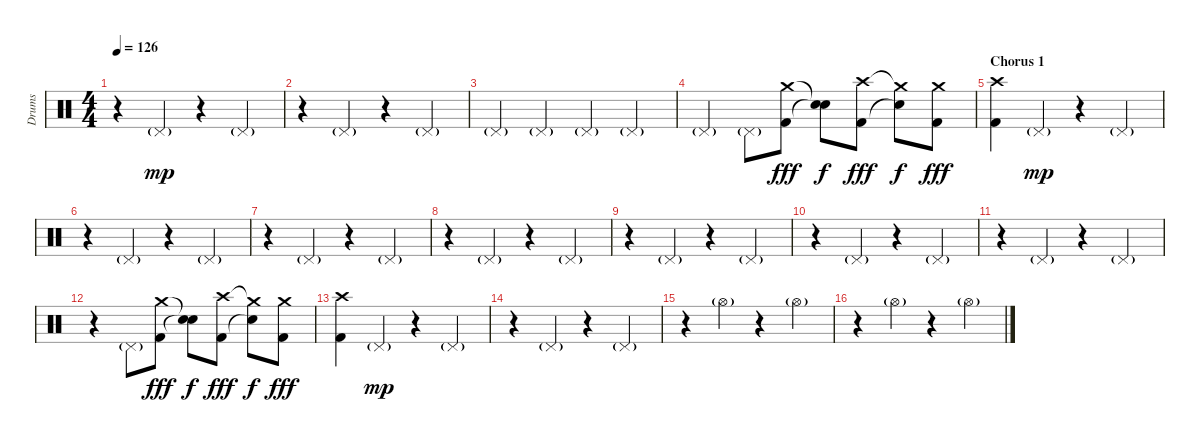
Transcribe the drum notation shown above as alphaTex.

\track ("Drums" "Drums") {instrument percussion}
\staff {score}
\articulation defaults
\ts (4 4)
\tempo 126
\clef neutral
\ks c
r.4{dy mp} "Pedal Hi-Hat (hit)"{g}.4 r.4 "Pedal Hi-Hat (hit)"{g}.4 |
r.4 "Pedal Hi-Hat (hit)"{g}.4 r.4 "Pedal Hi-Hat (hit)"{g}.4 |
"Pedal Hi-Hat (hit)"{g}.4 "Pedal Hi-Hat (hit)"{g}.4 "Pedal Hi-Hat (hit)"{g}.4 "Pedal Hi-Hat (hit)"{g}.4 |
"Pedal Hi-Hat (hit)"{g}.4 "Pedal Hi-Hat (hit)"{g}.8 ("Crash medium (hit)" "Kick (hit) 2").8{dy fff} ("Snare (hit)"{t} "Snare (hit)"{t}).8{dy f} ("Crash high (hit)" "Kick (hit) 2").8{dy fff} ("Crash medium (hit)"{t} "Snare (hit)"{t}).8{dy f} ("Crash medium (hit)" "Kick (hit) 2").8{dy fff} |
\section ("" "Chorus 1")
("Crash high (hit)" "Kick (hit) 2").4 "Pedal Hi-Hat (hit)"{g}.4{dy mp} r.4 "Pedal Hi-Hat (hit)"{g}.4 |
r.4 "Pedal Hi-Hat (hit)"{g}.4 r.4 "Pedal Hi-Hat (hit)"{g}.4 |
r.4 "Pedal Hi-Hat (hit)"{g}.4 r.4 "Pedal Hi-Hat (hit)"{g}.4 |
r.4 "Pedal Hi-Hat (hit)"{g}.4 r.4 "Pedal Hi-Hat (hit)"{g}.4 |
r.4 "Pedal Hi-Hat (hit)"{g}.4 r.4 "Pedal Hi-Hat (hit)"{g}.4 |
r.4 "Pedal Hi-Hat (hit)"{g}.4 r.4 "Pedal Hi-Hat (hit)"{g}.4 |
r.4 "Pedal Hi-Hat (hit)"{g}.4 r.4 "Pedal Hi-Hat (hit)"{g}.4 |
r.4 "Pedal Hi-Hat (hit)"{g}.8 ("Crash medium (hit)" "Kick (hit) 2").8{dy fff} ("Snare (hit)"{t} "Snare (hit)"{t}).8{dy f} ("Crash high (hit)" "Kick (hit) 2").8{dy fff} ("Crash medium (hit)"{t} "Snare (hit)"{t}).8{dy f} ("Crash medium (hit)" "Kick (hit) 2").8{dy fff} |
("Crash high (hit)" "Kick (hit) 2").4 "Pedal Hi-Hat (hit)"{g}.4{dy mp} r.4 "Pedal Hi-Hat (hit)"{g}.4 |
r.4 "Pedal Hi-Hat (hit)"{g}.4 r.4 "Pedal Hi-Hat (hit)"{g}.4 |
r.4 "Hi-Hat (open)"{g}.4 r.4 "Hi-Hat (open)"{g}.4 |
r.4 "Hi-Hat (open)"{g}.4 r.4 "Hi-Hat (open)"{g}.4
